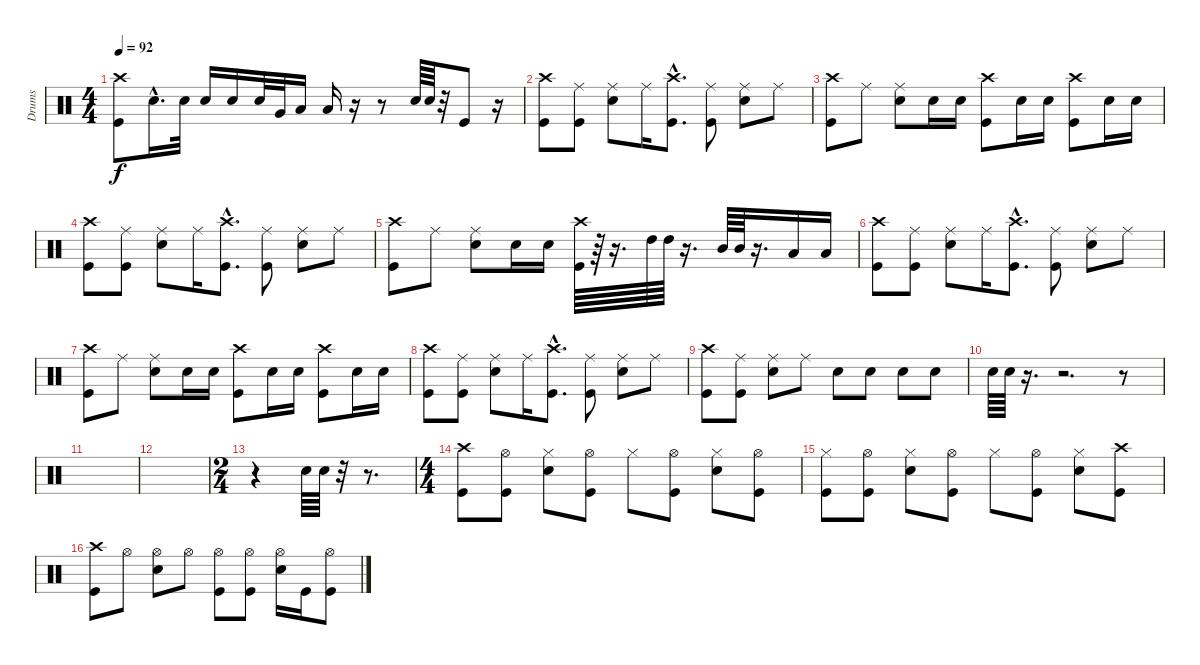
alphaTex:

\track ("Drums" "Drums") {instrument percussion}
\staff {score}
\articulation defaults
\ts (4 4)
\tempo 92
\clef neutral
\ks c
("Crash high (hit)" "Kick (hit)").8{dy f} "Snare (hit) 2"{hac}.16{d} "Snare (hit) 2".32 "Snare (hit) 2".16 "Snare (hit) 2".16 "Snare (hit) 2".32 "Very Low Tom (hit)".32 "Low Floor Tom (hit)".16 "Low Floor Tom (hit)".16 r.16 r.8 "Snare (hit) 2".64 "Snare (hit) 2".64 r.32 "Kick (hit)".8 r.16 |
("Crash high (hit)" "Kick (hit)").8 ("Ride (middle)" "Kick (hit)").8 ("Ride (middle)" "Snare (hit) 2").8 "Ride (middle)".16 ("Crash high (hit)"{hac} "Kick (hit)"{hac}).8{d} ("Ride (middle)" "Kick (hit)").8 ("Ride (middle)" "Snare (hit) 2").8 "Ride (middle)".8 |
("Crash high (hit)" "Kick (hit)").8 "Ride (middle)".8 ("Ride (middle)" "Snare (hit) 2").8 "Snare (hit) 2".16 "Snare (hit) 2".16 ("Crash high (hit)" "Kick (hit)").8 "Snare (hit) 2".16 "Snare (hit) 2".16 ("Crash high (hit)" "Kick (hit)").8 "Snare (hit) 2".16 "Snare (hit) 2".16 |
("Crash high (hit)" "Kick (hit)").8 ("Ride (middle)" "Kick (hit)").8 ("Ride (middle)" "Snare (hit) 2").8 "Ride (middle)".16 ("Crash high (hit)"{hac} "Kick (hit)"{hac}).8{d} ("Ride (middle)" "Kick (hit)").8 ("Ride (middle)" "Snare (hit) 2").8 "Ride (middle)".8 |
("Crash high (hit)" "Kick (hit)").8 "Ride (middle)".8 ("Ride (middle)" "Snare (hit) 2").8 "Snare (hit) 2".16 "Snare (hit) 2".16 ("Crash high (hit)" "Kick (hit)").64 r.64 r.16{d} "High Tom (hit)".64 "High Tom (hit)".64 r.16{d} "Mid Tom (hit)".64 "Mid Tom (hit)".64 r.16{d} "Low Tom (hit)".16 "Low Tom (hit)".16 |
("Crash high (hit)" "Kick (hit)").8 ("Ride (middle)" "Kick (hit)").8 ("Ride (middle)" "Snare (hit) 2").8 "Ride (middle)".16 ("Crash high (hit)"{hac} "Kick (hit)"{hac}).8{d} ("Ride (middle)" "Kick (hit)").8 ("Ride (middle)" "Snare (hit) 2").8 "Ride (middle)".8 |
("Crash high (hit)" "Kick (hit)").8 "Ride (middle)".8 ("Ride (middle)" "Snare (hit) 2").8 "Snare (hit) 2".16 "Snare (hit) 2".16 ("Crash high (hit)" "Kick (hit)").8 "Snare (hit) 2".16 "Snare (hit) 2".16 ("Crash high (hit)" "Kick (hit)").8 "Snare (hit) 2".16 "Snare (hit) 2".16 |
("Crash high (hit)" "Kick (hit)").8 ("Ride (middle)" "Kick (hit)").8 ("Ride (middle)" "Snare (hit) 2").8 "Ride (middle)".16 ("Crash high (hit)"{hac} "Kick (hit)"{hac}).8{d} ("Ride (middle)" "Kick (hit)").8 ("Ride (middle)" "Snare (hit) 2").8 "Ride (middle)".8 |
("Crash high (hit)" "Kick (hit)").8 ("Ride (middle)" "Kick (hit)").8 ("Ride (middle)" "Snare (hit) 2").8 "Ride (middle)".8 "Snare (hit) 2".8 "Snare (hit) 2".8 "Snare (hit) 2".8 "Snare (hit) 2".8 |
"Snare (hit) 2".64 "Snare (hit) 2".64 r.16{d} r.2{d} r.8 |
|
|
\ts (2 4)
r.4 "Snare (hit) 2".64 "Snare (hit) 2".64 r.32 r.8{d} |
\ts (4 4)
("Crash high (hit)" "Kick (hit)").8 ("Hi-Hat (open)" "Kick (hit)").8 ("Hi-Hat (closed)" "Snare (hit) 2").8 ("Hi-Hat (open)" "Kick (hit)").8 "Hi-Hat (closed)".8 ("Hi-Hat (open)" "Kick (hit)").8 ("Hi-Hat (closed)" "Snare (hit) 2").8 ("Hi-Hat (open)" "Kick (hit)").8 |
("Hi-Hat (closed)" "Kick (hit)").8 ("Hi-Hat (open)" "Kick (hit)").8 ("Hi-Hat (closed)" "Snare (hit) 2").8 ("Hi-Hat (open)" "Kick (hit)").8 "Hi-Hat (closed)".8 ("Hi-Hat (open)" "Kick (hit)").8 ("Hi-Hat (closed)" "Snare (hit) 2").8 ("Crash high (hit)" "Kick (hit)").8 |
("Crash high (hit)" "Kick (hit)").8 "Hi-Hat (open)".8 ("Hi-Hat (open)" "Snare (hit) 2").8 "Hi-Hat (open)".8 ("Hi-Hat (open)" "Kick (hit)").8 ("Hi-Hat (open)" "Kick (hit)").8 ("Hi-Hat (open)" "Snare (hit) 2").16 "Kick (hit)".16 ("Hi-Hat (open)" "Kick (hit)").8
